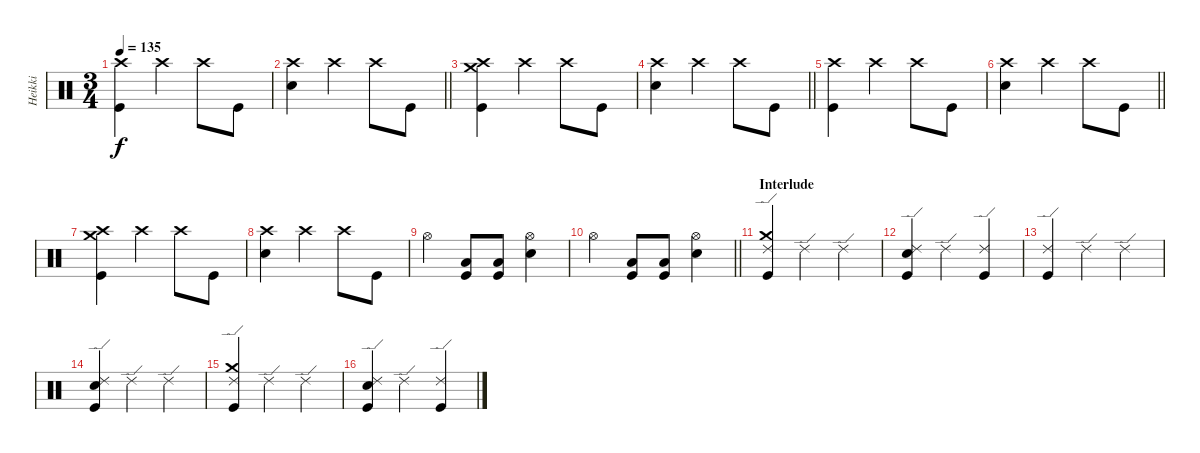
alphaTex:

\track ("Heikki" "Heikki") {instrument percussion}
\staff {score}
\articulation defaults
\ts (3 4)
\tempo 135
\clef neutral
\ks c
("Crash high (hit)" "Kick (hit)").4{dy f} "Crash high (hit)".4 "Crash high (hit)".8 "Kick (hit)".8 |
\barLineRight lightlight
("Crash high (hit)" "Snare (hit) 2").4 "Crash high (hit)".4 "Crash high (hit)".8 "Kick (hit)".8 |
("Crash high (hit)" "Crash medium (hit)" "Kick (hit)").4 "Crash high (hit)".4 "Crash high (hit)".8 "Kick (hit)".8 |
\barLineRight lightlight
("Crash high (hit)" "Snare (hit) 2").4 "Crash high (hit)".4 "Crash high (hit)".8 "Kick (hit)".8 |
("Crash high (hit)" "Kick (hit)").4 "Crash high (hit)".4 "Crash high (hit)".8 "Kick (hit)".8 |
\barLineRight lightlight
("Crash high (hit)" "Snare (hit) 2").4 "Crash high (hit)".4 "Crash high (hit)".8 "Kick (hit)".8 |
("Crash high (hit)" "Crash medium (hit)" "Kick (hit)").4 "Crash high (hit)".4 "Crash high (hit)".8 "Kick (hit)".8 |
("Crash high (hit)" "Snare (hit) 2").4 "Crash high (hit)".4 "Crash high (hit)".8 "Kick (hit)".8 |
"Hi-Hat (open)".4{volume 12} ("Low Floor Tom (hit)" "Kick (hit)").8 ("Low Floor Tom (hit)" "Kick (hit)").8 ("Hi-Hat (open)" "Snare (hit) 2").4 |
\barLineRight lightlight "Hi-Hat (open)".4
("Low Floor Tom (hit)" "Kick (hit)").8 ("Low Floor Tom (hit)" "Kick (hit)").8 ("Hi-Hat (open)" "Snare (hit) 2").4 |
\section ("" "Interlude")
("Ride (edge) 2" "Crash medium (hit)" "Kick (hit)").4 "Ride (edge) 2".4 "Ride (edge) 2".4 |
("Ride (edge) 2" "Snare (hit) 2" "Kick (hit)").4 "Ride (edge) 2".4 ("Ride (edge) 2" "Kick (hit)").4 |
("Ride (edge) 2" "Kick (hit)").4 "Ride (edge) 2".4 "Ride (edge) 2".4 |
("Ride (edge) 2" "Snare (hit) 2" "Kick (hit)").4 "Ride (edge) 2".4 "Ride (edge) 2".4 |
("Ride (edge) 2" "Crash medium (hit)" "Kick (hit)").4 "Ride (edge) 2".4 "Ride (edge) 2".4 |
("Ride (edge) 2" "Snare (hit) 2" "Kick (hit)").4 "Ride (edge) 2".4 ("Ride (edge) 2" "Kick (hit)").4
